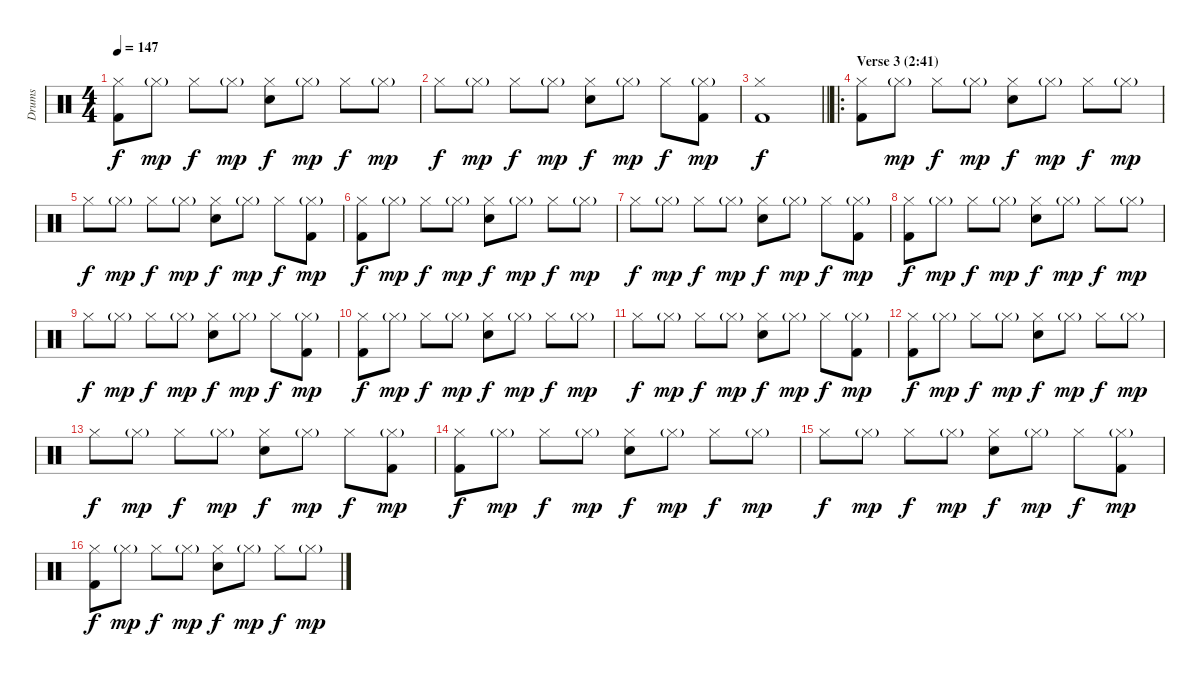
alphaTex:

\track ("Drums" "Drums") {instrument percussion}
\staff {score}
\articulation defaults
\ts (4 4)
\tempo 147
\clef neutral
\ks c
("Hi-Hat (closed)" "Kick (hit) 2").8{dy f} "Hi-Hat (closed)"{g}.8{dy mp} "Hi-Hat (closed)".8{dy f} "Hi-Hat (closed)"{g}.8{dy mp} ("Hi-Hat (closed)" "Snare (hit) 2").8{dy f} "Hi-Hat (closed)"{g}.8{dy mp} "Hi-Hat (closed)".8{dy f} "Hi-Hat (closed)"{g}.8{dy mp} |
"Hi-Hat (closed)".8{dy f} "Hi-Hat (closed)"{g}.8{dy mp} "Hi-Hat (closed)".8{dy f} "Hi-Hat (closed)"{g}.8{dy mp} ("Hi-Hat (closed)" "Snare (hit) 2").8{dy f} "Hi-Hat (closed)"{g}.8{dy mp} "Hi-Hat (closed)".8{dy f} ("Hi-Hat (closed)"{g} "Kick (hit) 2").8{dy mp} |
\barLineRight lightlight
("Hi-Hat (closed)" "Kick (hit) 2").1{dy f} |
\ro
\section ("" "Verse 3 (2:41)")
("Hi-Hat (closed)" "Kick (hit) 2").8 "Hi-Hat (closed)"{g}.8{dy mp} "Hi-Hat (closed)".8{dy f} "Hi-Hat (closed)"{g}.8{dy mp} ("Hi-Hat (closed)" "Snare (hit) 2").8{dy f} "Hi-Hat (closed)"{g}.8{dy mp} "Hi-Hat (closed)".8{dy f} "Hi-Hat (closed)"{g}.8{dy mp} |
"Hi-Hat (closed)".8{dy f} "Hi-Hat (closed)"{g}.8{dy mp} "Hi-Hat (closed)".8{dy f} "Hi-Hat (closed)"{g}.8{dy mp} ("Hi-Hat (closed)" "Snare (hit) 2").8{dy f} "Hi-Hat (closed)"{g}.8{dy mp} "Hi-Hat (closed)".8{dy f} ("Hi-Hat (closed)"{g} "Kick (hit) 2").8{dy mp} |
("Hi-Hat (closed)" "Kick (hit) 2").8{dy f} "Hi-Hat (closed)"{g}.8{dy mp} "Hi-Hat (closed)".8{dy f} "Hi-Hat (closed)"{g}.8{dy mp} ("Hi-Hat (closed)" "Snare (hit) 2").8{dy f} "Hi-Hat (closed)"{g}.8{dy mp} "Hi-Hat (closed)".8{dy f} "Hi-Hat (closed)"{g}.8{dy mp} |
"Hi-Hat (closed)".8{dy f} "Hi-Hat (closed)"{g}.8{dy mp} "Hi-Hat (closed)".8{dy f} "Hi-Hat (closed)"{g}.8{dy mp} ("Hi-Hat (closed)" "Snare (hit) 2").8{dy f} "Hi-Hat (closed)"{g}.8{dy mp} "Hi-Hat (closed)".8{dy f} ("Hi-Hat (closed)"{g} "Kick (hit) 2").8{dy mp} |
("Hi-Hat (closed)" "Kick (hit) 2").8{dy f} "Hi-Hat (closed)"{g}.8{dy mp} "Hi-Hat (closed)".8{dy f} "Hi-Hat (closed)"{g}.8{dy mp} ("Hi-Hat (closed)" "Snare (hit) 2").8{dy f} "Hi-Hat (closed)"{g}.8{dy mp} "Hi-Hat (closed)".8{dy f} "Hi-Hat (closed)"{g}.8{dy mp} |
"Hi-Hat (closed)".8{dy f} "Hi-Hat (closed)"{g}.8{dy mp} "Hi-Hat (closed)".8{dy f} "Hi-Hat (closed)"{g}.8{dy mp} ("Hi-Hat (closed)" "Snare (hit) 2").8{dy f} "Hi-Hat (closed)"{g}.8{dy mp} "Hi-Hat (closed)".8{dy f} ("Hi-Hat (closed)"{g} "Kick (hit) 2").8{dy mp} |
("Hi-Hat (closed)" "Kick (hit) 2").8{dy f} "Hi-Hat (closed)"{g}.8{dy mp} "Hi-Hat (closed)".8{dy f} "Hi-Hat (closed)"{g}.8{dy mp} ("Hi-Hat (closed)" "Snare (hit) 2").8{dy f} "Hi-Hat (closed)"{g}.8{dy mp} "Hi-Hat (closed)".8{dy f} "Hi-Hat (closed)"{g}.8{dy mp} |
"Hi-Hat (closed)".8{dy f} "Hi-Hat (closed)"{g}.8{dy mp} "Hi-Hat (closed)".8{dy f} "Hi-Hat (closed)"{g}.8{dy mp} ("Hi-Hat (closed)" "Snare (hit) 2").8{dy f} "Hi-Hat (closed)"{g}.8{dy mp} "Hi-Hat (closed)".8{dy f} ("Hi-Hat (closed)"{g} "Kick (hit) 2").8{dy mp} |
("Hi-Hat (closed)" "Kick (hit) 2").8{dy f} "Hi-Hat (closed)"{g}.8{dy mp} "Hi-Hat (closed)".8{dy f} "Hi-Hat (closed)"{g}.8{dy mp} ("Hi-Hat (closed)" "Snare (hit) 2").8{dy f} "Hi-Hat (closed)"{g}.8{dy mp} "Hi-Hat (closed)".8{dy f} "Hi-Hat (closed)"{g}.8{dy mp} |
"Hi-Hat (closed)".8{dy f} "Hi-Hat (closed)"{g}.8{dy mp} "Hi-Hat (closed)".8{dy f} "Hi-Hat (closed)"{g}.8{dy mp} ("Hi-Hat (closed)" "Snare (hit) 2").8{dy f} "Hi-Hat (closed)"{g}.8{dy mp} "Hi-Hat (closed)".8{dy f} ("Hi-Hat (closed)"{g} "Kick (hit) 2").8{dy mp} |
("Hi-Hat (closed)" "Kick (hit) 2").8{dy f} "Hi-Hat (closed)"{g}.8{dy mp} "Hi-Hat (closed)".8{dy f} "Hi-Hat (closed)"{g}.8{dy mp} ("Hi-Hat (closed)" "Snare (hit) 2").8{dy f} "Hi-Hat (closed)"{g}.8{dy mp} "Hi-Hat (closed)".8{dy f} "Hi-Hat (closed)"{g}.8{dy mp} |
"Hi-Hat (closed)".8{dy f} "Hi-Hat (closed)"{g}.8{dy mp} "Hi-Hat (closed)".8{dy f} "Hi-Hat (closed)"{g}.8{dy mp} ("Hi-Hat (closed)" "Snare (hit) 2").8{dy f} "Hi-Hat (closed)"{g}.8{dy mp} "Hi-Hat (closed)".8{dy f} ("Hi-Hat (closed)"{g} "Kick (hit) 2").8{dy mp} |
("Hi-Hat (closed)" "Kick (hit) 2").8{dy f} "Hi-Hat (closed)"{g}.8{dy mp} "Hi-Hat (closed)".8{dy f} "Hi-Hat (closed)"{g}.8{dy mp} ("Hi-Hat (closed)" "Snare (hit) 2").8{dy f} "Hi-Hat (closed)"{g}.8{dy mp} "Hi-Hat (closed)".8{dy f} "Hi-Hat (closed)"{g}.8{dy mp}
